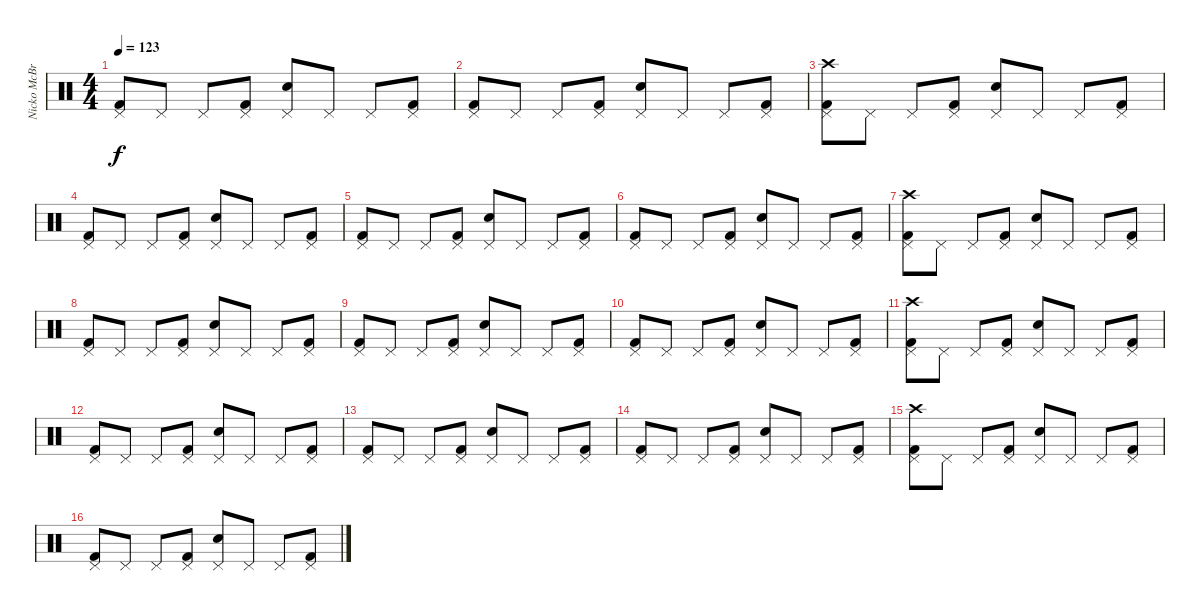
\track ("Nicko McBrain" "Nicko McBr") {instrument percussion}
\staff {score}
\articulation defaults
\ts (4 4)
\tempo 123
\clef neutral
\ks c
("Kick (hit) 2" "Pedal Hi-Hat (hit)").8{dy f} "Pedal Hi-Hat (hit)".8 "Pedal Hi-Hat (hit)".8 ("Kick (hit) 2" "Pedal Hi-Hat (hit)").8 ("Snare (hit) 2" "Pedal Hi-Hat (hit)").8 "Pedal Hi-Hat (hit)".8 "Pedal Hi-Hat (hit)".8 ("Kick (hit) 2" "Pedal Hi-Hat (hit)").8 |
("Kick (hit) 2" "Pedal Hi-Hat (hit)").8 "Pedal Hi-Hat (hit)".8 "Pedal Hi-Hat (hit)".8 ("Kick (hit) 2" "Pedal Hi-Hat (hit)").8 ("Snare (hit) 2" "Pedal Hi-Hat (hit)").8 "Pedal Hi-Hat (hit)".8 "Pedal Hi-Hat (hit)".8 ("Kick (hit) 2" "Pedal Hi-Hat (hit)").8 |
("Kick (hit) 2" "Pedal Hi-Hat (hit)" "Crash high (hit)").8 "Pedal Hi-Hat (hit)".8 "Pedal Hi-Hat (hit)".8 ("Kick (hit) 2" "Pedal Hi-Hat (hit)").8 ("Snare (hit) 2" "Pedal Hi-Hat (hit)").8 "Pedal Hi-Hat (hit)".8 "Pedal Hi-Hat (hit)".8 ("Kick (hit) 2" "Pedal Hi-Hat (hit)").8 |
("Kick (hit) 2" "Pedal Hi-Hat (hit)").8 "Pedal Hi-Hat (hit)".8 "Pedal Hi-Hat (hit)".8 ("Kick (hit) 2" "Pedal Hi-Hat (hit)").8 ("Snare (hit) 2" "Pedal Hi-Hat (hit)").8 "Pedal Hi-Hat (hit)".8 "Pedal Hi-Hat (hit)".8 ("Kick (hit) 2" "Pedal Hi-Hat (hit)").8 |
("Kick (hit) 2" "Pedal Hi-Hat (hit)").8 "Pedal Hi-Hat (hit)".8 "Pedal Hi-Hat (hit)".8 ("Kick (hit) 2" "Pedal Hi-Hat (hit)").8 ("Snare (hit) 2" "Pedal Hi-Hat (hit)").8 "Pedal Hi-Hat (hit)".8 "Pedal Hi-Hat (hit)".8 ("Kick (hit) 2" "Pedal Hi-Hat (hit)").8 |
("Kick (hit) 2" "Pedal Hi-Hat (hit)").8 "Pedal Hi-Hat (hit)".8 "Pedal Hi-Hat (hit)".8 ("Kick (hit) 2" "Pedal Hi-Hat (hit)").8 ("Snare (hit) 2" "Pedal Hi-Hat (hit)").8 "Pedal Hi-Hat (hit)".8 "Pedal Hi-Hat (hit)".8 ("Kick (hit) 2" "Pedal Hi-Hat (hit)").8 |
("Kick (hit) 2" "Pedal Hi-Hat (hit)" "Crash high (hit)").8 "Pedal Hi-Hat (hit)".8 "Pedal Hi-Hat (hit)".8 ("Kick (hit) 2" "Pedal Hi-Hat (hit)").8 ("Snare (hit) 2" "Pedal Hi-Hat (hit)").8 "Pedal Hi-Hat (hit)".8 "Pedal Hi-Hat (hit)".8 ("Kick (hit) 2" "Pedal Hi-Hat (hit)").8 |
("Kick (hit) 2" "Pedal Hi-Hat (hit)").8 "Pedal Hi-Hat (hit)".8 "Pedal Hi-Hat (hit)".8 ("Kick (hit) 2" "Pedal Hi-Hat (hit)").8 ("Snare (hit) 2" "Pedal Hi-Hat (hit)").8 "Pedal Hi-Hat (hit)".8 "Pedal Hi-Hat (hit)".8 ("Kick (hit) 2" "Pedal Hi-Hat (hit)").8 |
("Kick (hit) 2" "Pedal Hi-Hat (hit)").8 "Pedal Hi-Hat (hit)".8 "Pedal Hi-Hat (hit)".8 ("Kick (hit) 2" "Pedal Hi-Hat (hit)").8 ("Snare (hit) 2" "Pedal Hi-Hat (hit)").8 "Pedal Hi-Hat (hit)".8 "Pedal Hi-Hat (hit)".8 ("Kick (hit) 2" "Pedal Hi-Hat (hit)").8 |
("Kick (hit) 2" "Pedal Hi-Hat (hit)").8 "Pedal Hi-Hat (hit)".8 "Pedal Hi-Hat (hit)".8 ("Kick (hit) 2" "Pedal Hi-Hat (hit)").8 ("Snare (hit) 2" "Pedal Hi-Hat (hit)").8 "Pedal Hi-Hat (hit)".8 "Pedal Hi-Hat (hit)".8 ("Kick (hit) 2" "Pedal Hi-Hat (hit)").8 |
("Kick (hit) 2" "Pedal Hi-Hat (hit)" "Crash high (hit)").8 "Pedal Hi-Hat (hit)".8 "Pedal Hi-Hat (hit)".8 ("Kick (hit) 2" "Pedal Hi-Hat (hit)").8 ("Snare (hit) 2" "Pedal Hi-Hat (hit)").8 "Pedal Hi-Hat (hit)".8 "Pedal Hi-Hat (hit)".8 ("Kick (hit) 2" "Pedal Hi-Hat (hit)").8 |
("Kick (hit) 2" "Pedal Hi-Hat (hit)").8 "Pedal Hi-Hat (hit)".8 "Pedal Hi-Hat (hit)".8 ("Kick (hit) 2" "Pedal Hi-Hat (hit)").8 ("Snare (hit) 2" "Pedal Hi-Hat (hit)").8 "Pedal Hi-Hat (hit)".8 "Pedal Hi-Hat (hit)".8 ("Kick (hit) 2" "Pedal Hi-Hat (hit)").8 |
("Kick (hit) 2" "Pedal Hi-Hat (hit)").8 "Pedal Hi-Hat (hit)".8 "Pedal Hi-Hat (hit)".8 ("Kick (hit) 2" "Pedal Hi-Hat (hit)").8 ("Snare (hit) 2" "Pedal Hi-Hat (hit)").8 "Pedal Hi-Hat (hit)".8 "Pedal Hi-Hat (hit)".8 ("Kick (hit) 2" "Pedal Hi-Hat (hit)").8 |
("Kick (hit) 2" "Pedal Hi-Hat (hit)").8 "Pedal Hi-Hat (hit)".8 "Pedal Hi-Hat (hit)".8 ("Kick (hit) 2" "Pedal Hi-Hat (hit)").8 ("Snare (hit) 2" "Pedal Hi-Hat (hit)").8 "Pedal Hi-Hat (hit)".8 "Pedal Hi-Hat (hit)".8 ("Kick (hit) 2" "Pedal Hi-Hat (hit)").8 |
("Kick (hit) 2" "Pedal Hi-Hat (hit)" "Crash high (hit)").8 "Pedal Hi-Hat (hit)".8 "Pedal Hi-Hat (hit)".8 ("Kick (hit) 2" "Pedal Hi-Hat (hit)").8 ("Snare (hit) 2" "Pedal Hi-Hat (hit)").8 "Pedal Hi-Hat (hit)".8 "Pedal Hi-Hat (hit)".8 ("Kick (hit) 2" "Pedal Hi-Hat (hit)").8 |
("Kick (hit) 2" "Pedal Hi-Hat (hit)").8 "Pedal Hi-Hat (hit)".8 "Pedal Hi-Hat (hit)".8 ("Kick (hit) 2" "Pedal Hi-Hat (hit)").8 ("Snare (hit) 2" "Pedal Hi-Hat (hit)").8 "Pedal Hi-Hat (hit)".8 "Pedal Hi-Hat (hit)".8 ("Kick (hit) 2" "Pedal Hi-Hat (hit)").8
